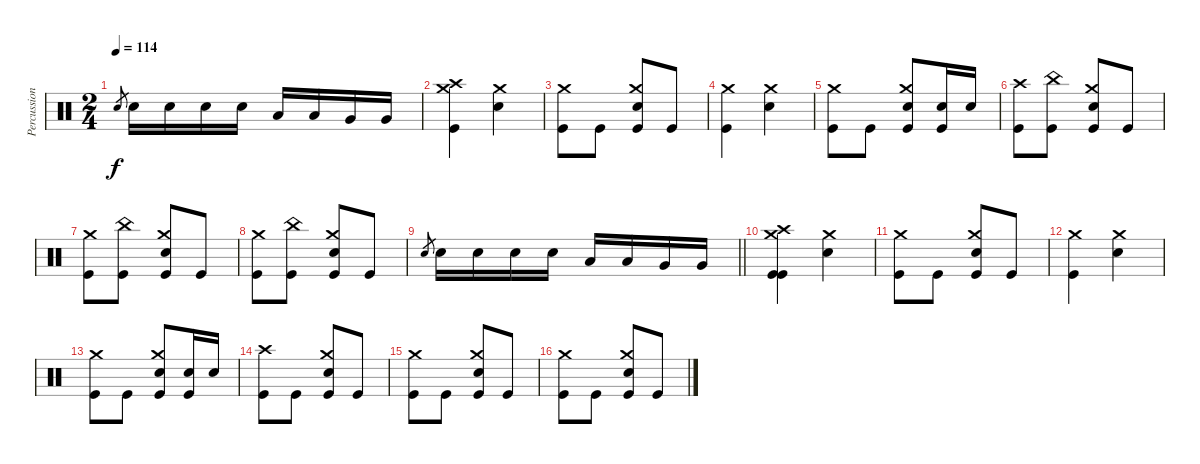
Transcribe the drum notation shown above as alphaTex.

\track ("Percussion" "Percussion") {instrument percussion}
\staff {score}
\articulation defaults
\ts (2 4)
\tempo 114
\clef neutral
\ks c "Electric Snare (hit)".8{gr dy f} "Electric Snare (hit)".16 "Electric Snare (hit)".16 "Electric Snare (hit)".16 "Electric Snare (hit)".16 "Low Tom (hit)".16 "Low Tom (hit)".16 "Very Low Tom (hit)".16 "Very Low Tom (hit)".16
|
("Crash high (hit)" "Crash medium (hit)" "Kick (hit)").4 ("Crash medium (hit)" "Electric Snare (hit)").4 |
("Crash medium (hit)" "Kick (hit)").8 "Kick (hit)".8 ("Crash medium (hit)" "Electric Snare (hit)" "Kick (hit)").8 "Kick (hit)".8 |
("Crash medium (hit)" "Kick (hit)").4 ("Crash medium (hit)" "Electric Snare (hit)").4 |
("Crash medium (hit)" "Kick (hit)").8 "Kick (hit)".8 ("Crash medium (hit)" "Electric Snare (hit)" "Kick (hit)").8 ("Electric Snare (hit)" "Kick (hit)").16 "Electric Snare (hit)".16 |
("Crash high (hit)" "Kick (hit)").8 ("China (hit)" "Kick (hit)").8 ("Crash medium (hit)" "Electric Snare (hit)" "Kick (hit)").8 "Kick (hit)".8 |
("Crash medium (hit)" "Kick (hit)").8 ("China (hit)" "Kick (hit)").8 ("Crash medium (hit)" "Electric Snare (hit)" "Kick (hit)").8 "Kick (hit)".8 |
("Crash medium (hit)" "Kick (hit)").8 ("China (hit)" "Kick (hit)").8 ("Crash medium (hit)" "Electric Snare (hit)" "Kick (hit)").8 "Kick (hit)".8 |
\barLineRight lightlight "Electric Snare (hit)".8{gr} "Electric Snare (hit)".16 "Electric Snare (hit)".16 "Electric Snare (hit)".16 "Electric Snare (hit)".16 "Low Tom (hit)".16 "Low Tom (hit)".16 "Very Low Tom (hit)".16 "Very Low Tom (hit)".16
|
\section ("" "")
("Crash high (hit)" "Crash medium (hit)" "Kick (hit)" "Kick (hit)").4 ("Crash medium (hit)" "Electric Snare (hit)").4 |
("Crash medium (hit)" "Kick (hit)").8 "Kick (hit)".8 ("Crash medium (hit)" "Electric Snare (hit)" "Kick (hit)").8 "Kick (hit)".8 |
("Crash medium (hit)" "Kick (hit)").4 ("Crash medium (hit)" "Electric Snare (hit)").4 |
("Crash medium (hit)" "Kick (hit)").8 "Kick (hit)".8 ("Crash medium (hit)" "Electric Snare (hit)" "Kick (hit)").8 ("Electric Snare (hit)" "Kick (hit)").16 "Electric Snare (hit)".16 |
("Crash high (hit)" "Kick (hit)").8 "Kick (hit)".8 ("Crash medium (hit)" "Electric Snare (hit)" "Kick (hit)").8 "Kick (hit)".8 |
("Crash medium (hit)" "Kick (hit)").8 "Kick (hit)".8 ("Crash medium (hit)" "Electric Snare (hit)" "Kick (hit)").8 "Kick (hit)".8 |
("Crash medium (hit)" "Kick (hit)").8 "Kick (hit)".8 ("Crash medium (hit)" "Electric Snare (hit)" "Kick (hit)").8 "Kick (hit)".8
